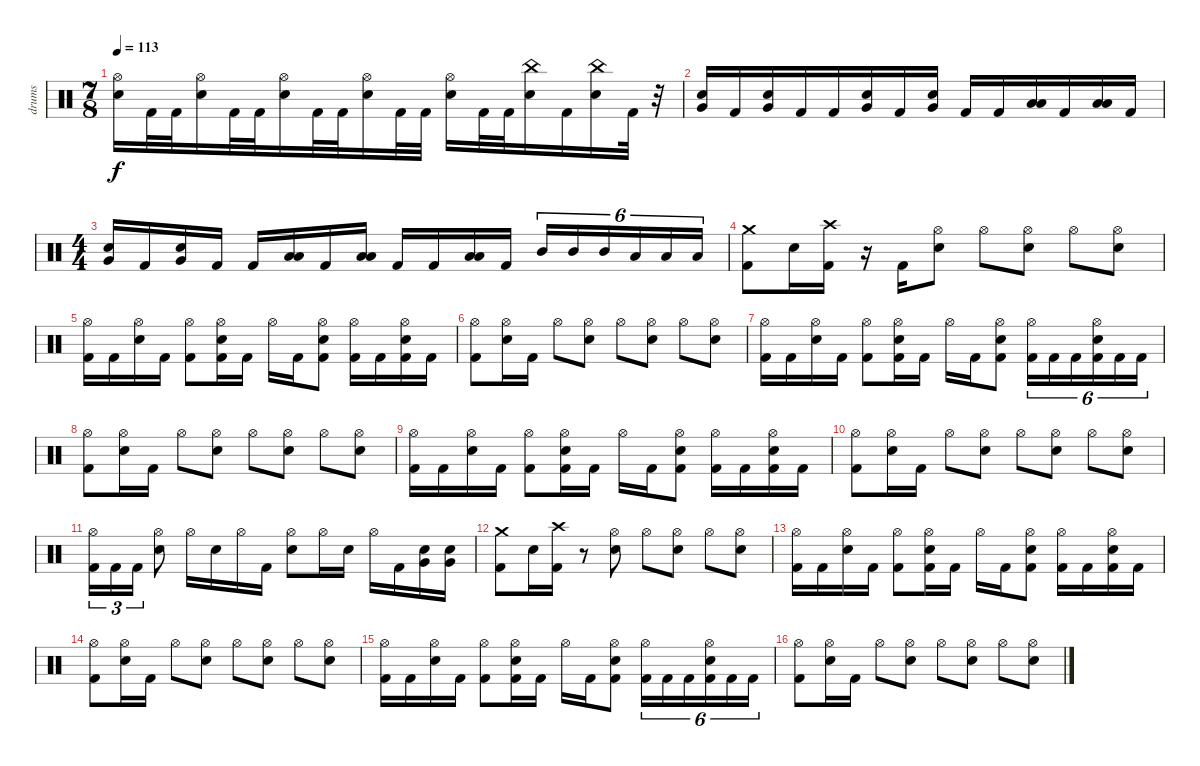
\track ("drums" "drums") {instrument percussion}
\staff {score}
\articulation defaults
\ts (7 8)
\tempo 113
\clef neutral
\ks c
("Hi-Hat (open)" "Electric Snare (hit)").16{dy f} "Kick (hit) 2".32 "Kick (hit) 2".32 ("Hi-Hat (open)" "Electric Snare (hit)").16 "Kick (hit) 2".32 "Kick (hit) 2".32 ("Hi-Hat (open)" "Electric Snare (hit)").16 "Kick (hit) 2".32 "Kick (hit) 2".32 ("Hi-Hat (open)" "Electric Snare (hit)").16 "Kick (hit) 2".32 "Kick (hit) 2".32 ("Hi-Hat (open)" "Electric Snare (hit)").16 "Kick (hit) 2".32 "Kick (hit) 2".32 ("China (hit)" "Electric Snare (hit)").16 "Kick (hit) 2".16 ("China (hit)" "Electric Snare (hit)").16 "Kick (hit) 2".32 r.32 |
("Very Low Tom (hit)" "Electric Snare (hit)").16 "Kick (hit) 2".16 ("Very Low Tom (hit)" "Electric Snare (hit)").16 "Kick (hit) 2".16 "Kick (hit) 2".16 ("Very Low Tom (hit)" "Electric Snare (hit)").16 "Kick (hit) 2".16 ("Very Low Tom (hit)" "Electric Snare (hit)").16 "Kick (hit) 2".16 "Kick (hit) 2".16 ("Low Tom (hit)" "Low Floor Tom (hit)").16 "Kick (hit) 2".16 ("Low Tom (hit)" "Low Floor Tom (hit)").16 "Kick (hit) 2".16 |
\ts (4 4)
("Very Low Tom (hit)" "Electric Snare (hit)").16 "Kick (hit) 2".16 ("Very Low Tom (hit)" "Electric Snare (hit)").16 "Kick (hit) 2".16 "Kick (hit) 2".16 ("Low Floor Tom (hit)" "Low Tom (hit)").16 "Kick (hit) 2".16 ("Low Floor Tom (hit)" "Low Tom (hit)").16 "Kick (hit) 2".16 "Kick (hit) 2".16 ("Low Tom (hit)" "Low Floor Tom (hit)").16 "Kick (hit) 2".16 "Mid Tom (hit)".16{tu (6 4)} "Mid Tom (hit)".16{tu (6 4)} "Mid Tom (hit)".16{tu (6 4)} "Low Tom (hit)".16{tu (6 4)} "Low Tom (hit)".16{tu (6 4)} "Low Tom (hit)".16{tu (6 4)} |
("Crash medium (hit)" "Kick (hit) 2").8 "Electric Snare (hit)".16 ("Crash high (hit)" "Kick (hit) 2").16 r.16 "Kick (hit) 2".16 ("Hi-Hat (open)" "Electric Snare (hit)").8 "Hi-Hat (open)".8 ("Hi-Hat (open)" "Electric Snare (hit)").8 "Hi-Hat (open)".8 ("Hi-Hat (open)" "Electric Snare (hit)").8 |
("Hi-Hat (open)" "Kick (hit) 2").16 "Kick (hit) 2".16 ("Hi-Hat (open)" "Electric Snare (hit)").16 "Kick (hit) 2".16 ("Hi-Hat (open)" "Kick (hit) 2").8 ("Hi-Hat (open)" "Electric Snare (hit)" "Kick (hit) 2").16 "Kick (hit) 2".16 "Hi-Hat (open)".16 "Kick (hit) 2".16 ("Hi-Hat (open)" "Electric Snare (hit)" "Kick (hit) 2").8 ("Hi-Hat (open)" "Kick (hit) 2").16 "Kick (hit) 2".16 ("Hi-Hat (open)" "Electric Snare (hit)" "Kick (hit) 2").16 "Kick (hit) 2".16 |
("Hi-Hat (open)" "Kick (hit) 2").8 ("Hi-Hat (open)" "Electric Snare (hit)").16 "Kick (hit) 2".16 "Hi-Hat (open)".8 ("Hi-Hat (open)" "Electric Snare (hit)").8 "Hi-Hat (open)".8 ("Hi-Hat (open)" "Electric Snare (hit)").8 "Hi-Hat (open)".8 ("Hi-Hat (open)" "Electric Snare (hit)").8 |
("Hi-Hat (open)" "Kick (hit) 2").16 "Kick (hit) 2".16 ("Hi-Hat (open)" "Electric Snare (hit)").16 "Kick (hit) 2".16 ("Hi-Hat (open)" "Kick (hit) 2").8 ("Hi-Hat (open)" "Electric Snare (hit)" "Kick (hit) 2").16 "Kick (hit) 2".16 "Hi-Hat (open)".16 "Kick (hit) 2".16 ("Hi-Hat (open)" "Electric Snare (hit)" "Kick (hit) 2").8 ("Kick (hit) 2" "Hi-Hat (open)").16{tu (6 4)} "Kick (hit) 2".16{tu (6 4)} "Kick (hit) 2".16{tu (6 4)} ("Kick (hit) 2" "Hi-Hat (open)" "Electric Snare (hit)").16{tu (6 4)} "Kick (hit) 2".16{tu (6 4)} "Kick (hit) 2".16{tu (6 4)} |
("Hi-Hat (open)" "Kick (hit) 2").8 ("Hi-Hat (open)" "Electric Snare (hit)").16 "Kick (hit) 2".16 "Hi-Hat (open)".8 ("Hi-Hat (open)" "Electric Snare (hit)").8 "Hi-Hat (open)".8 ("Hi-Hat (open)" "Electric Snare (hit)").8 "Hi-Hat (open)".8 ("Hi-Hat (open)" "Electric Snare (hit)").8 |
("Hi-Hat (open)" "Kick (hit) 2").16 "Kick (hit) 2".16 ("Hi-Hat (open)" "Electric Snare (hit)").16 "Kick (hit) 2".16 ("Hi-Hat (open)" "Kick (hit) 2").8 ("Hi-Hat (open)" "Electric Snare (hit)" "Kick (hit) 2").16 "Kick (hit) 2".16 "Hi-Hat (open)".16 "Kick (hit) 2".16 ("Hi-Hat (open)" "Electric Snare (hit)" "Kick (hit) 2").8 ("Hi-Hat (open)" "Kick (hit) 2").16 "Kick (hit) 2".16 ("Hi-Hat (open)" "Electric Snare (hit)" "Kick (hit) 2").16 "Kick (hit) 2".16 |
("Hi-Hat (open)" "Kick (hit) 2").8 ("Hi-Hat (open)" "Electric Snare (hit)").16 "Kick (hit) 2".16 "Hi-Hat (open)".8 ("Hi-Hat (open)" "Electric Snare (hit)").8 "Hi-Hat (open)".8 ("Hi-Hat (open)" "Electric Snare (hit)").8 "Hi-Hat (open)".8 ("Hi-Hat (open)" "Electric Snare (hit)").8 |
("Kick (hit) 2" "Hi-Hat (open)").16{tu (3 2)} "Kick (hit) 2".16{tu (3 2)} "Kick (hit) 2".16{tu (3 2)} ("Electric Snare (hit)" "Hi-Hat (open)").8 "Hi-Hat (open)".16 "Electric Snare (hit)".16 "Hi-Hat (open)".16 "Kick (hit) 2".16 ("Electric Snare (hit)" "Hi-Hat (open)").8 "Hi-Hat (open)".16 "Electric Snare (hit)".16 "Hi-Hat (open)".16 "Kick (hit) 2".16 ("Very Low Tom (hit)" "Electric Snare (hit)").16 ("Very Low Tom (hit)" "Electric Snare (hit)").16 |
("Crash medium (hit)" "Kick (hit) 2").8 "Electric Snare (hit)".16 ("Crash high (hit)" "Kick (hit) 2").16 r.8 ("Hi-Hat (open)" "Electric Snare (hit)").8 "Hi-Hat (open)".8 ("Hi-Hat (open)" "Electric Snare (hit)").8 "Hi-Hat (open)".8 ("Hi-Hat (open)" "Electric Snare (hit)").8 |
("Hi-Hat (open)" "Kick (hit) 2").16 "Kick (hit) 2".16 ("Hi-Hat (open)" "Electric Snare (hit)").16 "Kick (hit) 2".16 ("Hi-Hat (open)" "Kick (hit) 2").8 ("Hi-Hat (open)" "Electric Snare (hit)" "Kick (hit) 2").16 "Kick (hit) 2".16 "Hi-Hat (open)".16 "Kick (hit) 2".16 ("Hi-Hat (open)" "Electric Snare (hit)" "Kick (hit) 2").8 ("Hi-Hat (open)" "Kick (hit) 2").16 "Kick (hit) 2".16 ("Hi-Hat (open)" "Electric Snare (hit)" "Kick (hit) 2").16 "Kick (hit) 2".16 |
("Hi-Hat (open)" "Kick (hit) 2").8 ("Hi-Hat (open)" "Electric Snare (hit)").16 "Kick (hit) 2".16 "Hi-Hat (open)".8 ("Hi-Hat (open)" "Electric Snare (hit)").8 "Hi-Hat (open)".8 ("Hi-Hat (open)" "Electric Snare (hit)").8 "Hi-Hat (open)".8 ("Hi-Hat (open)" "Electric Snare (hit)").8 |
("Hi-Hat (open)" "Kick (hit) 2").16 "Kick (hit) 2".16 ("Hi-Hat (open)" "Electric Snare (hit)").16 "Kick (hit) 2".16 ("Hi-Hat (open)" "Kick (hit) 2").8 ("Hi-Hat (open)" "Electric Snare (hit)" "Kick (hit) 2").16 "Kick (hit) 2".16 "Hi-Hat (open)".16 "Kick (hit) 2".16 ("Hi-Hat (open)" "Electric Snare (hit)" "Kick (hit) 2").8 ("Kick (hit) 2" "Hi-Hat (open)").16{tu (6 4)} "Kick (hit) 2".16{tu (6 4)} "Kick (hit) 2".16{tu (6 4)} ("Kick (hit) 2" "Hi-Hat (open)" "Electric Snare (hit)").16{tu (6 4)} "Kick (hit) 2".16{tu (6 4)} "Kick (hit) 2".16{tu (6 4)} |
("Hi-Hat (open)" "Kick (hit) 2").8 ("Hi-Hat (open)" "Electric Snare (hit)").16 "Kick (hit) 2".16 "Hi-Hat (open)".8 ("Hi-Hat (open)" "Electric Snare (hit)").8 "Hi-Hat (open)".8 ("Hi-Hat (open)" "Electric Snare (hit)").8 "Hi-Hat (open)".8 ("Hi-Hat (open)" "Electric Snare (hit)").8
